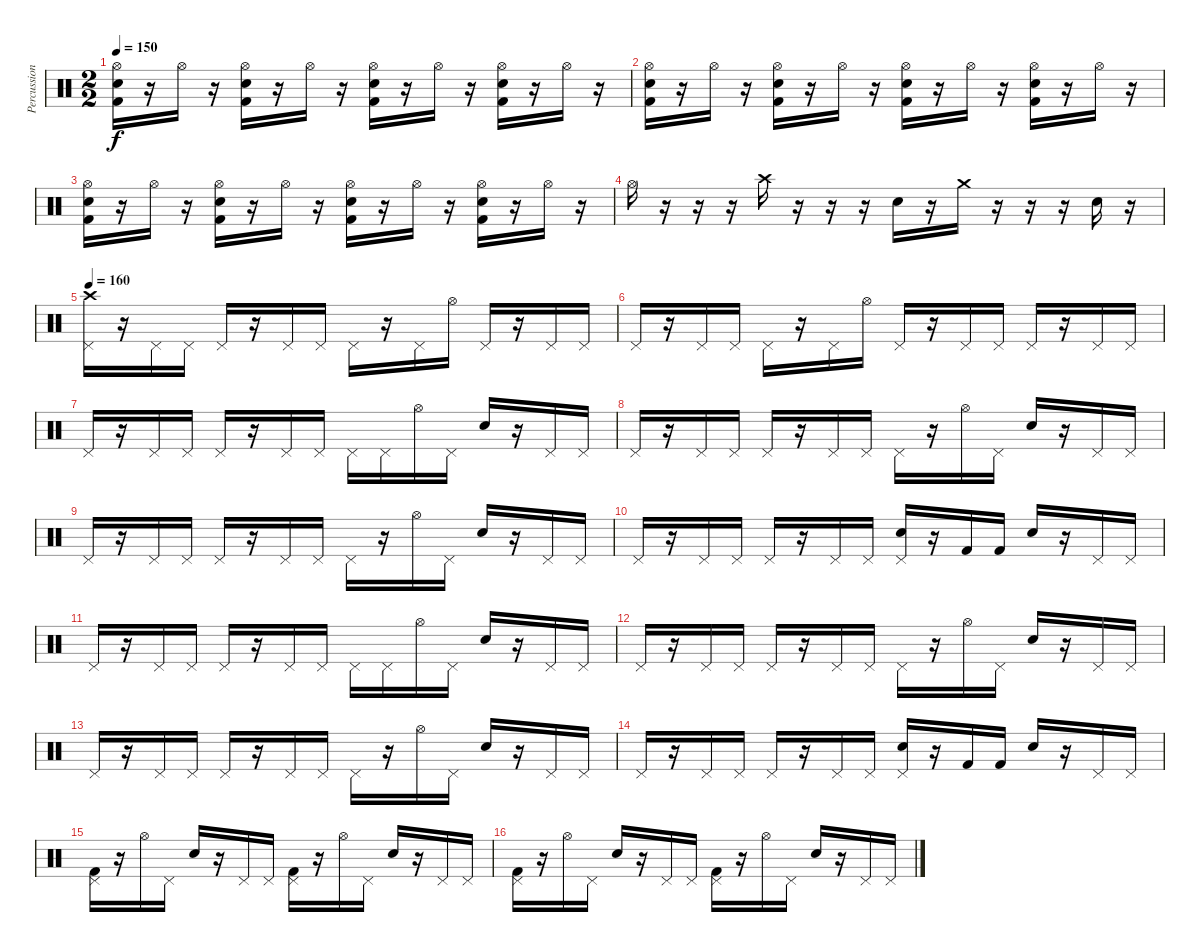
\track ("Percussion" "Percussion") {instrument percussion}
\staff {score}
\articulation defaults
\ts (2 2)
\tempo 150
\clef neutral
\ks c
("Hi-Hat (open)" "Kick (hit) 2" "Snare (hit) 2").16{dy f} r.16 "Hi-Hat (open)".16 r.16 ("Hi-Hat (open)" "Kick (hit) 2" "Snare (hit) 2").16 r.16 "Hi-Hat (open)".16 r.16 ("Hi-Hat (open)" "Kick (hit) 2" "Snare (hit) 2").16 r.16 "Hi-Hat (open)".16 r.16 ("Hi-Hat (open)" "Kick (hit) 2" "Snare (hit) 2").16 r.16 "Hi-Hat (open)".16 r.16 |
("Hi-Hat (open)" "Kick (hit) 2" "Snare (hit) 2").16 r.16 "Hi-Hat (open)".16 r.16 ("Hi-Hat (open)" "Kick (hit) 2" "Snare (hit) 2").16 r.16 "Hi-Hat (open)".16 r.16 ("Hi-Hat (open)" "Kick (hit) 2" "Snare (hit) 2").16 r.16 "Hi-Hat (open)".16 r.16 ("Hi-Hat (open)" "Kick (hit) 2" "Snare (hit) 2").16 r.16 "Hi-Hat (open)".16 r.16 |
("Hi-Hat (open)" "Kick (hit) 2" "Snare (hit) 2").16 r.16 "Hi-Hat (open)".16 r.16 ("Hi-Hat (open)" "Kick (hit) 2" "Snare (hit) 2").16 r.16 "Hi-Hat (open)".16 r.16 ("Hi-Hat (open)" "Kick (hit) 2" "Snare (hit) 2").16 r.16 "Hi-Hat (open)".16 r.16 ("Hi-Hat (open)" "Kick (hit) 2" "Snare (hit) 2").16 r.16 "Hi-Hat (open)".16 r.16 |
"Hi-Hat (open)".16 r.16 r.16 r.16 "Crash high (hit)".16 r.16 r.16 r.16 "Snare (hit) 2".16 r.16 "Crash medium (hit)".16 r.16 r.16 r.16 "Snare (hit) 2".16 r.16 |
\tempo 160
("Crash high (hit)" "Pedal Hi-Hat (hit)").16 r.16 "Pedal Hi-Hat (hit)".16 "Pedal Hi-Hat (hit)".16 "Pedal Hi-Hat (hit)".16 r.16 "Pedal Hi-Hat (hit)".16 "Pedal Hi-Hat (hit)".16 "Pedal Hi-Hat (hit)".16 r.16 "Pedal Hi-Hat (hit)".16 "Hi-Hat (open)".16 "Pedal Hi-Hat (hit)".16 r.16 "Pedal Hi-Hat (hit)".16 "Pedal Hi-Hat (hit)".16 |
"Pedal Hi-Hat (hit)".16 r.16 "Pedal Hi-Hat (hit)".16 "Pedal Hi-Hat (hit)".16 "Pedal Hi-Hat (hit)".16 r.16 "Pedal Hi-Hat (hit)".16 "Hi-Hat (open)".16 "Pedal Hi-Hat (hit)".16 r.16 "Pedal Hi-Hat (hit)".16 "Pedal Hi-Hat (hit)".16 "Pedal Hi-Hat (hit)".16 r.16 "Pedal Hi-Hat (hit)".16 "Pedal Hi-Hat (hit)".16 |
"Pedal Hi-Hat (hit)".16 r.16 "Pedal Hi-Hat (hit)".16 "Pedal Hi-Hat (hit)".16 "Pedal Hi-Hat (hit)".16 r.16 "Pedal Hi-Hat (hit)".16 "Pedal Hi-Hat (hit)".16 "Pedal Hi-Hat (hit)".16 "Pedal Hi-Hat (hit)".16 "Hi-Hat (open)".16 "Pedal Hi-Hat (hit)".16 "Snare (hit) 2".16 r.16 "Pedal Hi-Hat (hit)".16 "Pedal Hi-Hat (hit)".16 |
"Pedal Hi-Hat (hit)".16 r.16 "Pedal Hi-Hat (hit)".16 "Pedal Hi-Hat (hit)".16 "Pedal Hi-Hat (hit)".16 r.16 "Pedal Hi-Hat (hit)".16 "Pedal Hi-Hat (hit)".16 "Pedal Hi-Hat (hit)".16 r.16 "Hi-Hat (open)".16 "Pedal Hi-Hat (hit)".16 "Snare (hit) 2".16 r.16 "Pedal Hi-Hat (hit)".16 "Pedal Hi-Hat (hit)".16 |
"Pedal Hi-Hat (hit)".16 r.16 "Pedal Hi-Hat (hit)".16 "Pedal Hi-Hat (hit)".16 "Pedal Hi-Hat (hit)".16 r.16 "Pedal Hi-Hat (hit)".16 "Pedal Hi-Hat (hit)".16 "Pedal Hi-Hat (hit)".16 r.16 "Hi-Hat (open)".16 "Pedal Hi-Hat (hit)".16 "Snare (hit) 2".16 r.16 "Pedal Hi-Hat (hit)".16 "Pedal Hi-Hat (hit)".16 |
"Pedal Hi-Hat (hit)".16 r.16 "Pedal Hi-Hat (hit)".16 "Pedal Hi-Hat (hit)".16 "Pedal Hi-Hat (hit)".16 r.16 "Pedal Hi-Hat (hit)".16 "Pedal Hi-Hat (hit)".16 ("Snare (hit) 2" "Pedal Hi-Hat (hit)").16 r.16 "Kick (hit) 2".16 "Kick (hit) 2".16 "Snare (hit) 2".16 r.16 "Pedal Hi-Hat (hit)".16 "Pedal Hi-Hat (hit)".16 |
"Pedal Hi-Hat (hit)".16 r.16 "Pedal Hi-Hat (hit)".16 "Pedal Hi-Hat (hit)".16 "Pedal Hi-Hat (hit)".16 r.16 "Pedal Hi-Hat (hit)".16 "Pedal Hi-Hat (hit)".16 "Pedal Hi-Hat (hit)".16 "Pedal Hi-Hat (hit)".16 "Hi-Hat (open)".16 "Pedal Hi-Hat (hit)".16 "Snare (hit) 2".16 r.16 "Pedal Hi-Hat (hit)".16 "Pedal Hi-Hat (hit)".16 |
"Pedal Hi-Hat (hit)".16 r.16 "Pedal Hi-Hat (hit)".16 "Pedal Hi-Hat (hit)".16 "Pedal Hi-Hat (hit)".16 r.16 "Pedal Hi-Hat (hit)".16 "Pedal Hi-Hat (hit)".16 "Pedal Hi-Hat (hit)".16 r.16 "Hi-Hat (open)".16 "Pedal Hi-Hat (hit)".16 "Snare (hit) 2".16 r.16 "Pedal Hi-Hat (hit)".16 "Pedal Hi-Hat (hit)".16 |
"Pedal Hi-Hat (hit)".16 r.16 "Pedal Hi-Hat (hit)".16 "Pedal Hi-Hat (hit)".16 "Pedal Hi-Hat (hit)".16 r.16 "Pedal Hi-Hat (hit)".16 "Pedal Hi-Hat (hit)".16 "Pedal Hi-Hat (hit)".16 r.16 "Hi-Hat (open)".16 "Pedal Hi-Hat (hit)".16 "Snare (hit) 2".16 r.16 "Pedal Hi-Hat (hit)".16 "Pedal Hi-Hat (hit)".16 |
"Pedal Hi-Hat (hit)".16 r.16 "Pedal Hi-Hat (hit)".16 "Pedal Hi-Hat (hit)".16 "Pedal Hi-Hat (hit)".16 r.16 "Pedal Hi-Hat (hit)".16 "Pedal Hi-Hat (hit)".16 ("Snare (hit) 2" "Pedal Hi-Hat (hit)").16 r.16 "Kick (hit) 2".16 "Kick (hit) 2".16 "Snare (hit) 2".16 r.16 "Pedal Hi-Hat (hit)".16 "Pedal Hi-Hat (hit)".16 |
("Kick (hit) 2" "Pedal Hi-Hat (hit)").16 r.16 "Hi-Hat (open)".16 "Pedal Hi-Hat (hit)".16 "Snare (hit) 2".16 r.16 "Pedal Hi-Hat (hit)".16 "Pedal Hi-Hat (hit)".16 ("Kick (hit) 2" "Pedal Hi-Hat (hit)").16 r.16 "Hi-Hat (open)".16 "Pedal Hi-Hat (hit)".16 "Snare (hit) 2".16 r.16 "Pedal Hi-Hat (hit)".16 "Pedal Hi-Hat (hit)".16 |
("Kick (hit) 2" "Pedal Hi-Hat (hit)").16 r.16 "Hi-Hat (open)".16 "Pedal Hi-Hat (hit)".16 "Snare (hit) 2".16 r.16 "Pedal Hi-Hat (hit)".16 "Pedal Hi-Hat (hit)".16 ("Kick (hit) 2" "Pedal Hi-Hat (hit)").16 r.16 "Hi-Hat (open)".16 "Pedal Hi-Hat (hit)".16 "Snare (hit) 2".16 r.16 "Pedal Hi-Hat (hit)".16 "Pedal Hi-Hat (hit)".16
